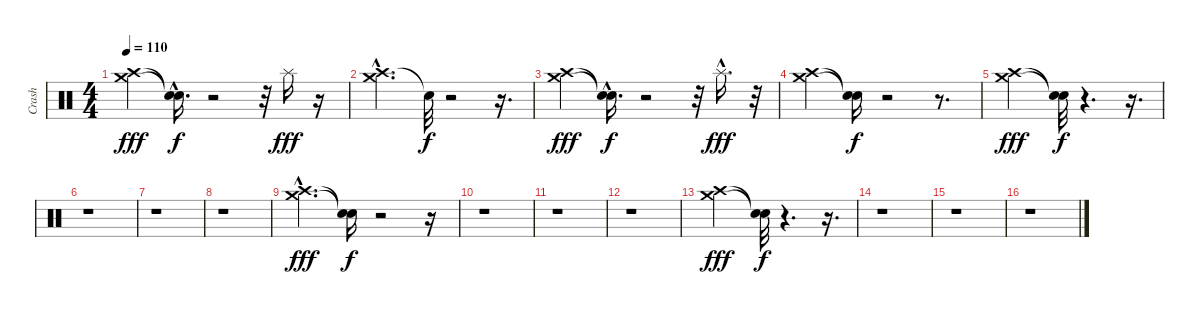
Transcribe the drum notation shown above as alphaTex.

\track ("Crash" "Crash") {instrument percussion}
\staff {score}
\articulation defaults
\ts (4 4)
\tempo 110
\clef neutral
\ks c
("Crash high (hit)" "Crash medium (hit)").4{dy fff} ("Snare (hit)"{hac t} "Snare (hit)"{hac t}).16{d dy f} r.2 r.32 "Splash (hit)".16{dy fff} r.16 |
("Crash high (hit)"{hac} "Crash medium (hit)"{hac}).4{d} "Snare (hit)"{t}.32{dy f} r.2 r.16{d} |
("Crash high (hit)" "Crash medium (hit)").4{dy fff} ("Snare (hit)"{hac t} "Snare (hit)"{hac t}).16{d dy f} r.2 r.32 "Splash (hit)"{hac}.16{d dy fff} r.32 |
("Crash high (hit)" "Crash medium (hit)").4 ("Snare (hit)"{t} "Snare (hit)"{t}).16{dy f} r.2 r.8{d} |
("Crash medium (hit)" "Crash high (hit)").2{dy fff} ("Snare (hit)"{t} "Snare (hit)"{t}).32{dy f} r.4{d} r.16{d} |
r.1 |
r.1 |
r.1 |
("Crash medium (hit)"{hac} "Crash high (hit)"{hac}).4{d dy fff} ("Snare (hit)"{t} "Snare (hit)"{t}).16{dy f} r.2 r.16 |
r.1 |
r.1 |
r.1 |
("Crash high (hit)" "Crash medium (hit)").2{dy fff} ("Snare (hit)"{t} "Snare (hit)"{t}).32{dy f} r.4{d} r.16{d} |
r.1 |
r.1 |
r.1
